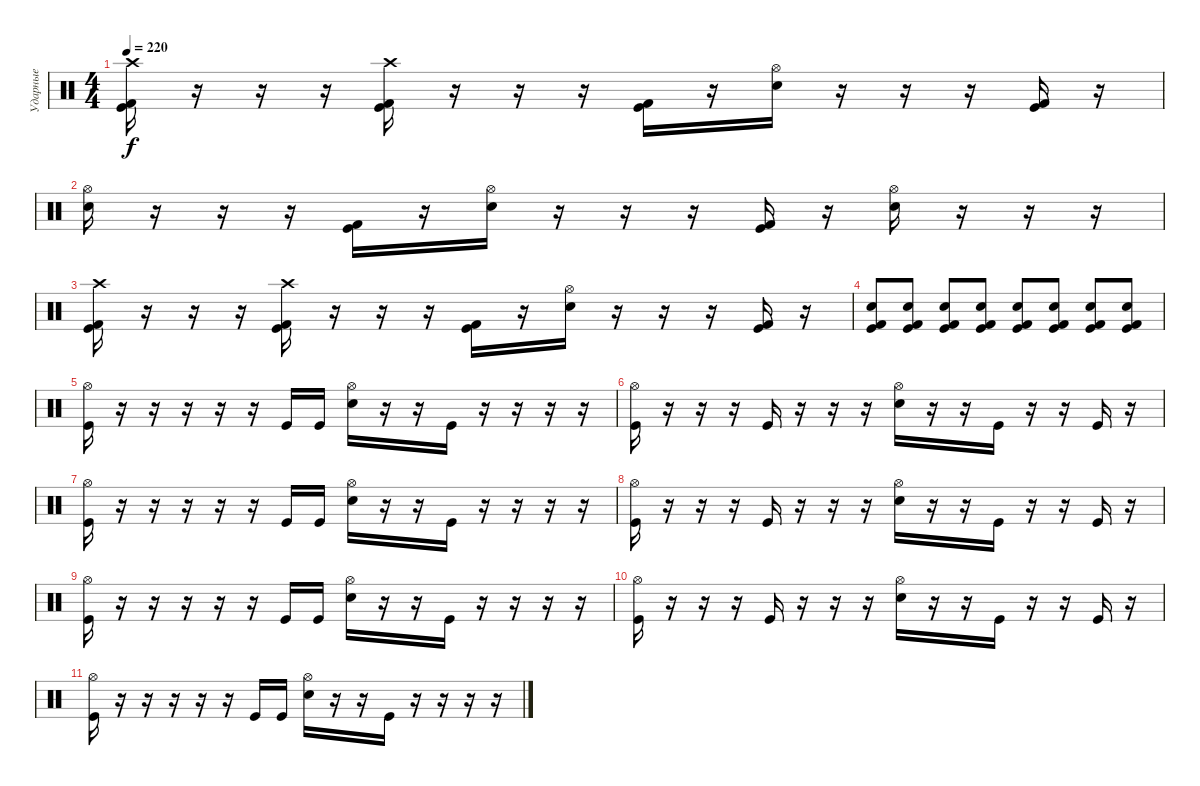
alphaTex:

\track ("Ударные" "Ударные") {instrument percussion}
\staff {score}
\articulation defaults
\ts (4 4)
\tempo 220
\clef neutral
\ks c
("Crash high (hit)" "Kick (hit)" "Kick (hit) 2").16{dy f} r.16 r.16 r.16 ("Crash high (hit)" "Kick (hit)" "Kick (hit) 2").16 r.16 r.16 r.16 ("Kick (hit)" "Kick (hit) 2").16 r.16 ("Hi-Hat (open)" "Electric Snare (hit)").16 r.16 r.16 r.16 ("Kick (hit)" "Kick (hit) 2").16 r.16 |
("Hi-Hat (open)" "Electric Snare (hit)").16 r.16 r.16 r.16 ("Kick (hit)" "Kick (hit) 2").16 r.16 ("Hi-Hat (open)" "Electric Snare (hit)").16 r.16 r.16 r.16 ("Kick (hit)" "Kick (hit) 2").16 r.16 ("Hi-Hat (open)" "Electric Snare (hit)").16 r.16 r.16 r.16 |
("Crash high (hit)" "Kick (hit)" "Kick (hit) 2").16 r.16 r.16 r.16 ("Crash high (hit)" "Kick (hit)" "Kick (hit) 2").16 r.16 r.16 r.16 ("Kick (hit)" "Kick (hit) 2").16 r.16 ("Hi-Hat (open)" "Electric Snare (hit)").16 r.16 r.16 r.16 ("Kick (hit)" "Kick (hit) 2").16 r.16 |
("Electric Snare (hit)" "Kick (hit)" "Kick (hit) 2").8 ("Electric Snare (hit)" "Kick (hit)" "Kick (hit) 2").8 ("Electric Snare (hit)" "Kick (hit)" "Kick (hit) 2").8 ("Electric Snare (hit)" "Kick (hit)" "Kick (hit) 2").8 ("Electric Snare (hit)" "Kick (hit)" "Kick (hit) 2").8 ("Electric Snare (hit)" "Kick (hit)" "Kick (hit) 2").8 ("Electric Snare (hit)" "Kick (hit)" "Kick (hit) 2").8 ("Electric Snare (hit)" "Kick (hit)" "Kick (hit) 2").8 |
("Hi-Hat (open)" "Kick (hit)").16 r.16 r.16 r.16 r.16 r.16 "Kick (hit)".16 "Kick (hit)".16 ("Hi-Hat (open)" "Electric Snare (hit)").16 r.16 r.16 "Kick (hit)".16 r.16 r.16 r.16 r.16 |
("Hi-Hat (open)" "Kick (hit)").16 r.16 r.16 r.16 "Kick (hit)".16 r.16 r.16 r.16 ("Hi-Hat (open)" "Electric Snare (hit)").16 r.16 r.16 "Kick (hit)".16 r.16 r.16 "Kick (hit)".16 r.16 |
("Hi-Hat (open)" "Kick (hit)").16 r.16 r.16 r.16 r.16 r.16 "Kick (hit)".16 "Kick (hit)".16 ("Hi-Hat (open)" "Electric Snare (hit)").16 r.16 r.16 "Kick (hit)".16 r.16 r.16 r.16 r.16 |
("Hi-Hat (open)" "Kick (hit)").16 r.16 r.16 r.16 "Kick (hit)".16 r.16 r.16 r.16 ("Hi-Hat (open)" "Electric Snare (hit)").16 r.16 r.16 "Kick (hit)".16 r.16 r.16 "Kick (hit)".16 r.16 |
("Hi-Hat (open)" "Kick (hit)").16 r.16 r.16 r.16 r.16 r.16 "Kick (hit)".16 "Kick (hit)".16 ("Hi-Hat (open)" "Electric Snare (hit)").16 r.16 r.16 "Kick (hit)".16 r.16 r.16 r.16 r.16 |
("Hi-Hat (open)" "Kick (hit)").16 r.16 r.16 r.16 "Kick (hit)".16 r.16 r.16 r.16 ("Hi-Hat (open)" "Electric Snare (hit)").16 r.16 r.16 "Kick (hit)".16 r.16 r.16 "Kick (hit)".16 r.16 |
("Hi-Hat (open)" "Kick (hit)").16 r.16 r.16 r.16 r.16 r.16 "Kick (hit)".16 "Kick (hit)".16 ("Hi-Hat (open)" "Electric Snare (hit)").16 r.16 r.16 "Kick (hit)".16 r.16 r.16 r.16 r.16
